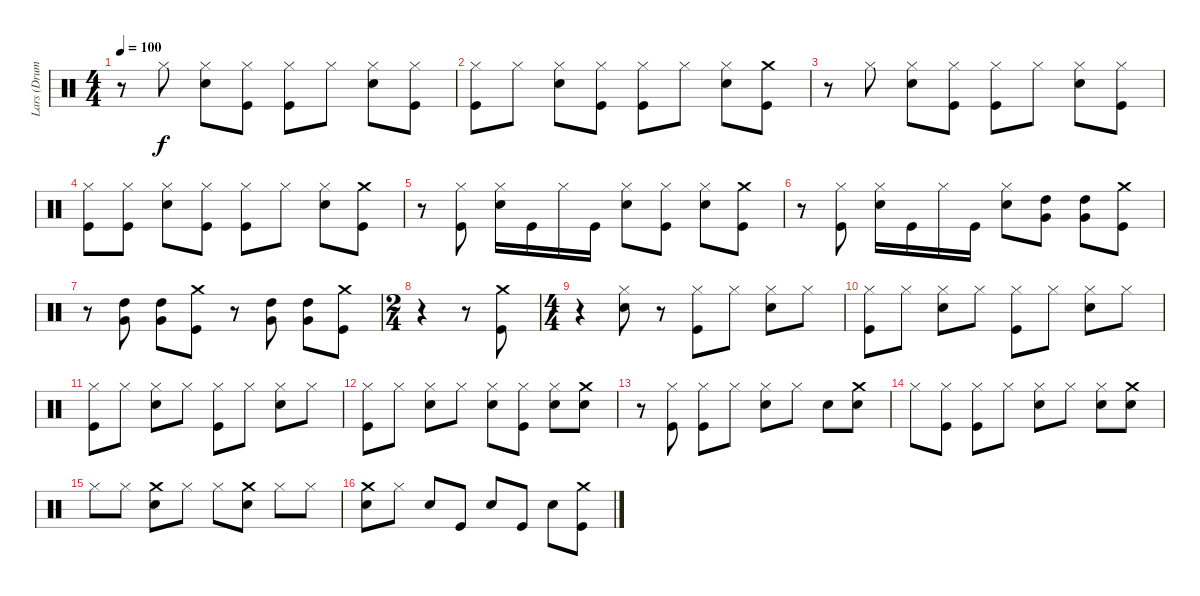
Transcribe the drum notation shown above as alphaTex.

\track ("Lars (Drums)" "Lars (Drum") {instrument percussion}
\staff {score}
\articulation defaults
\ts (4 4)
\tempo 100
\clef neutral
\ks c
r.8{dy f} "Hi-Hat (closed)".8 ("Snare (hit) 2" "Hi-Hat (closed)").8 ("Kick (hit)" "Hi-Hat (closed)").8 ("Hi-Hat (closed)" "Kick (hit)").8 "Hi-Hat (closed)".8 ("Hi-Hat (closed)" "Snare (hit) 2").8 ("Kick (hit)" "Hi-Hat (closed)").8 |
("Hi-Hat (closed)" "Kick (hit)").8 "Hi-Hat (closed)".8 ("Snare (hit) 2" "Hi-Hat (closed)").8 ("Kick (hit)" "Hi-Hat (closed)").8 ("Hi-Hat (closed)" "Kick (hit)").8 "Hi-Hat (closed)".8 ("Hi-Hat (closed)" "Snare (hit) 2").8 ("Crash medium (hit)" "Kick (hit)").8 |
r.8 "Hi-Hat (closed)".8 ("Hi-Hat (closed)" "Snare (hit) 2").8 ("Kick (hit)" "Hi-Hat (closed)").8 ("Hi-Hat (closed)" "Kick (hit)").8 "Hi-Hat (closed)".8 ("Snare (hit) 2" "Hi-Hat (closed)").8 ("Kick (hit)" "Hi-Hat (closed)").8 |
("Kick (hit)" "Hi-Hat (closed)").8 ("Hi-Hat (closed)" "Kick (hit)").8 ("Hi-Hat (closed)" "Snare (hit) 2").8 ("Kick (hit)" "Hi-Hat (closed)").8 ("Hi-Hat (closed)" "Kick (hit)").8 "Hi-Hat (closed)".8 ("Hi-Hat (closed)" "Snare (hit) 2").8 ("Crash medium (hit)" "Kick (hit)").8 |
r.8 ("Kick (hit)" "Hi-Hat (closed)").8 ("Hi-Hat (closed)" "Snare (hit) 2").16 "Kick (hit)".16 "Hi-Hat (closed)".16 "Kick (hit)".16 ("Snare (hit) 2" "Hi-Hat (closed)").8 ("Hi-Hat (closed)" "Kick (hit)").8 ("Hi-Hat (closed)" "Snare (hit) 2").8 ("Crash medium (hit)" "Kick (hit)").8 |
r.8 ("Kick (hit)" "Hi-Hat (closed)").8 ("Hi-Hat (closed)" "Snare (hit) 2").16 "Kick (hit)".16 "Hi-Hat (closed)".16 "Kick (hit)".16 ("Snare (hit) 2" "Hi-Hat (closed)").8 ("High Tom (hit)" "Very Low Tom (hit)").8 ("High Tom (hit)" "Very Low Tom (hit)").8 ("Crash medium (hit)" "Kick (hit)").8 |
r.8 ("High Tom (hit)" "Very Low Tom (hit)").8 ("High Tom (hit)" "Very Low Tom (hit)").8 ("Crash medium (hit)" "Kick (hit)").8 r.8 ("High Tom (hit)" "Very Low Tom (hit)").8 ("High Tom (hit)" "Very Low Tom (hit)").8 ("Crash medium (hit)" "Kick (hit)").8 |
\ts (2 4)
r.4 r.8 ("Crash medium (hit)" "Kick (hit)").8 |
\ts (4 4)
r.4 ("Hi-Hat (closed)" "Snare (hit) 2").8 r.8 ("Hi-Hat (closed)" "Kick (hit)").8 "Hi-Hat (closed)".8 ("Snare (hit) 2" "Hi-Hat (closed)").8 "Hi-Hat (closed)".8 |
("Hi-Hat (closed)" "Kick (hit)").8 "Hi-Hat (closed)".8 ("Snare (hit) 2" "Hi-Hat (closed)").8 "Hi-Hat (closed)".8 ("Kick (hit)" "Hi-Hat (closed)").8 "Hi-Hat (closed)".8 ("Snare (hit) 2" "Hi-Hat (closed)").8 "Hi-Hat (closed)".8 |
("Hi-Hat (closed)" "Kick (hit)").8 "Hi-Hat (closed)".8 ("Snare (hit) 2" "Hi-Hat (closed)").8 "Hi-Hat (closed)".8 ("Kick (hit)" "Hi-Hat (closed)").8 "Hi-Hat (closed)".8 ("Snare (hit) 2" "Hi-Hat (closed)").8 "Hi-Hat (closed)".8 |
("Hi-Hat (closed)" "Kick (hit)").8 "Hi-Hat (closed)".8 ("Snare (hit) 2" "Hi-Hat (closed)").8 "Hi-Hat (closed)".8 ("Snare (hit) 2" "Hi-Hat (closed)").8 ("Kick (hit)" "Hi-Hat (closed)").8 ("Hi-Hat (closed)" "Snare (hit) 2").8 ("Crash medium (hit)" "Snare (hit) 2").8 |
r.8 ("Hi-Hat (closed)" "Kick (hit)").8 ("Hi-Hat (closed)" "Kick (hit)").8 "Hi-Hat (closed)".8 ("Snare (hit) 2" "Hi-Hat (closed)").8 "Hi-Hat (closed)".8 "Snare (hit) 2".8 ("Crash medium (hit)" "Snare (hit) 2").8 |
"Hi-Hat (closed)".8 ("Kick (hit)" "Hi-Hat (closed)").8 ("Hi-Hat (closed)" "Kick (hit)").8 "Hi-Hat (closed)".8 ("Snare (hit) 2" "Hi-Hat (closed)").8 "Hi-Hat (closed)".8 ("Hi-Hat (closed)" "Snare (hit) 2").8 ("Crash medium (hit)" "Snare (hit) 2").8 |
"Hi-Hat (closed)".8 "Hi-Hat (closed)".8 ("Crash medium (hit)" "Snare (hit) 2").8 "Hi-Hat (closed)".8 "Hi-Hat (closed)".8 ("Crash medium (hit)" "Snare (hit) 2").8 "Hi-Hat (closed)".8 "Hi-Hat (closed)".8 |
("Crash medium (hit)" "Snare (hit) 2").8 "Hi-Hat (closed)".8 "Snare (hit) 2".8 "Kick (hit)".8 "Snare (hit) 2".8 "Kick (hit)".8 "Snare (hit) 2".8 ("Crash medium (hit)" "Kick (hit)").8
